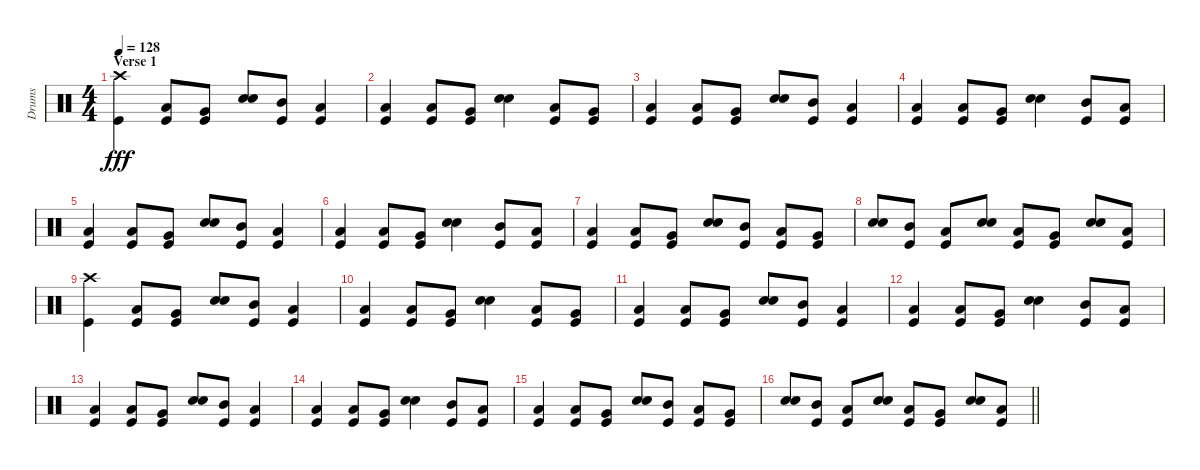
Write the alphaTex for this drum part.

\track ("Drums" "Drums") {instrument percussion}
\staff {score}
\articulation defaults
\ts (4 4)
\section ("" "Verse 1")
\tempo 128
\clef neutral
\ks c
("Crash high (hit)" "Kick (hit)").4{dy fff} ("Low Tom (hit)" "Kick (hit)").8 ("Very Low Tom (hit)" "Kick (hit)").8 ("Snare (hit) 2" "Electric Snare (hit)").8 ("Mid Tom (hit)" "Kick (hit)").8 ("Low Tom (hit)" "Kick (hit)").4 |
("Low Tom (hit)" "Kick (hit)").4 ("Low Tom (hit)" "Kick (hit)").8 ("Very Low Tom (hit)" "Kick (hit)").8 ("Snare (hit) 2" "Electric Snare (hit)").4 ("Low Tom (hit)" "Kick (hit)").8 ("Very Low Tom (hit)" "Kick (hit)").8 |
("Low Tom (hit)" "Kick (hit)").4 ("Low Tom (hit)" "Kick (hit)").8 ("Very Low Tom (hit)" "Kick (hit)").8 ("Snare (hit) 2" "Electric Snare (hit)").8 ("Mid Tom (hit)" "Kick (hit)").8 ("Low Tom (hit)" "Kick (hit)").4 |
("Low Tom (hit)" "Kick (hit)").4 ("Low Tom (hit)" "Kick (hit)").8 ("Very Low Tom (hit)" "Kick (hit)").8 ("Snare (hit) 2" "Electric Snare (hit)").4 ("Mid Tom (hit)" "Kick (hit)").8 ("Low Tom (hit)" "Kick (hit)").8 |
("Low Tom (hit)" "Kick (hit)").4 ("Low Tom (hit)" "Kick (hit)").8 ("Very Low Tom (hit)" "Kick (hit)").8 ("Snare (hit) 2" "Electric Snare (hit)").8 ("Mid Tom (hit)" "Kick (hit)").8 ("Low Tom (hit)" "Kick (hit)").4 |
("Low Tom (hit)" "Kick (hit)").4 ("Low Tom (hit)" "Kick (hit)").8 ("Very Low Tom (hit)" "Kick (hit)").8 ("Snare (hit) 2" "Electric Snare (hit)").4 ("Mid Tom (hit)" "Kick (hit)").8 ("Low Tom (hit)" "Kick (hit)").8 |
("Low Tom (hit)" "Kick (hit)").4 ("Low Tom (hit)" "Kick (hit)").8 ("Very Low Tom (hit)" "Kick (hit)").8 ("Snare (hit) 2" "Electric Snare (hit)").8 ("Mid Tom (hit)" "Kick (hit)").8 ("Low Tom (hit)" "Kick (hit)").8 ("Very Low Tom (hit)" "Kick (hit)").8 |
("Snare (hit) 2" "Electric Snare (hit)").8 ("Mid Tom (hit)" "Kick (hit)").8 ("Low Tom (hit)" "Kick (hit)").8 ("Snare (hit) 2" "Electric Snare (hit)").8 ("Low Tom (hit)" "Kick (hit)").8 ("Very Low Tom (hit)" "Kick (hit)").8 ("Snare (hit) 2" "Electric Snare (hit)").8 ("Low Tom (hit)" "Kick (hit)").8 |
("Crash high (hit)" "Kick (hit)").4 ("Low Tom (hit)" "Kick (hit)").8 ("Very Low Tom (hit)" "Kick (hit)").8 ("Snare (hit) 2" "Electric Snare (hit)").8 ("Mid Tom (hit)" "Kick (hit)").8 ("Low Tom (hit)" "Kick (hit)").4 |
("Low Tom (hit)" "Kick (hit)").4 ("Low Tom (hit)" "Kick (hit)").8 ("Very Low Tom (hit)" "Kick (hit)").8 ("Snare (hit) 2" "Electric Snare (hit)").4 ("Low Tom (hit)" "Kick (hit)").8 ("Very Low Tom (hit)" "Kick (hit)").8 |
("Low Tom (hit)" "Kick (hit)").4 ("Low Tom (hit)" "Kick (hit)").8 ("Very Low Tom (hit)" "Kick (hit)").8 ("Snare (hit) 2" "Electric Snare (hit)").8 ("Mid Tom (hit)" "Kick (hit)").8 ("Low Tom (hit)" "Kick (hit)").4 |
("Low Tom (hit)" "Kick (hit)").4 ("Low Tom (hit)" "Kick (hit)").8 ("Very Low Tom (hit)" "Kick (hit)").8 ("Snare (hit) 2" "Electric Snare (hit)").4 ("Mid Tom (hit)" "Kick (hit)").8 ("Low Tom (hit)" "Kick (hit)").8 |
("Low Tom (hit)" "Kick (hit)").4 ("Low Tom (hit)" "Kick (hit)").8 ("Very Low Tom (hit)" "Kick (hit)").8 ("Snare (hit) 2" "Electric Snare (hit)").8 ("Mid Tom (hit)" "Kick (hit)").8 ("Low Tom (hit)" "Kick (hit)").4 |
("Low Tom (hit)" "Kick (hit)").4 ("Low Tom (hit)" "Kick (hit)").8 ("Very Low Tom (hit)" "Kick (hit)").8 ("Snare (hit) 2" "Electric Snare (hit)").4 ("Mid Tom (hit)" "Kick (hit)").8 ("Low Tom (hit)" "Kick (hit)").8 |
("Low Tom (hit)" "Kick (hit)").4 ("Low Tom (hit)" "Kick (hit)").8 ("Very Low Tom (hit)" "Kick (hit)").8 ("Snare (hit) 2" "Electric Snare (hit)").8 ("Mid Tom (hit)" "Kick (hit)").8 ("Low Tom (hit)" "Kick (hit)").8 ("Very Low Tom (hit)" "Kick (hit)").8 |
\barLineRight lightlight
("Snare (hit) 2" "Electric Snare (hit)").8 ("Mid Tom (hit)" "Kick (hit)").8 ("Low Tom (hit)" "Kick (hit)").8 ("Snare (hit) 2" "Electric Snare (hit)").8 ("Low Tom (hit)" "Kick (hit)").8 ("Very Low Tom (hit)" "Kick (hit)").8 ("Snare (hit) 2" "Electric Snare (hit)").8 ("Low Tom (hit)" "Kick (hit)").8
